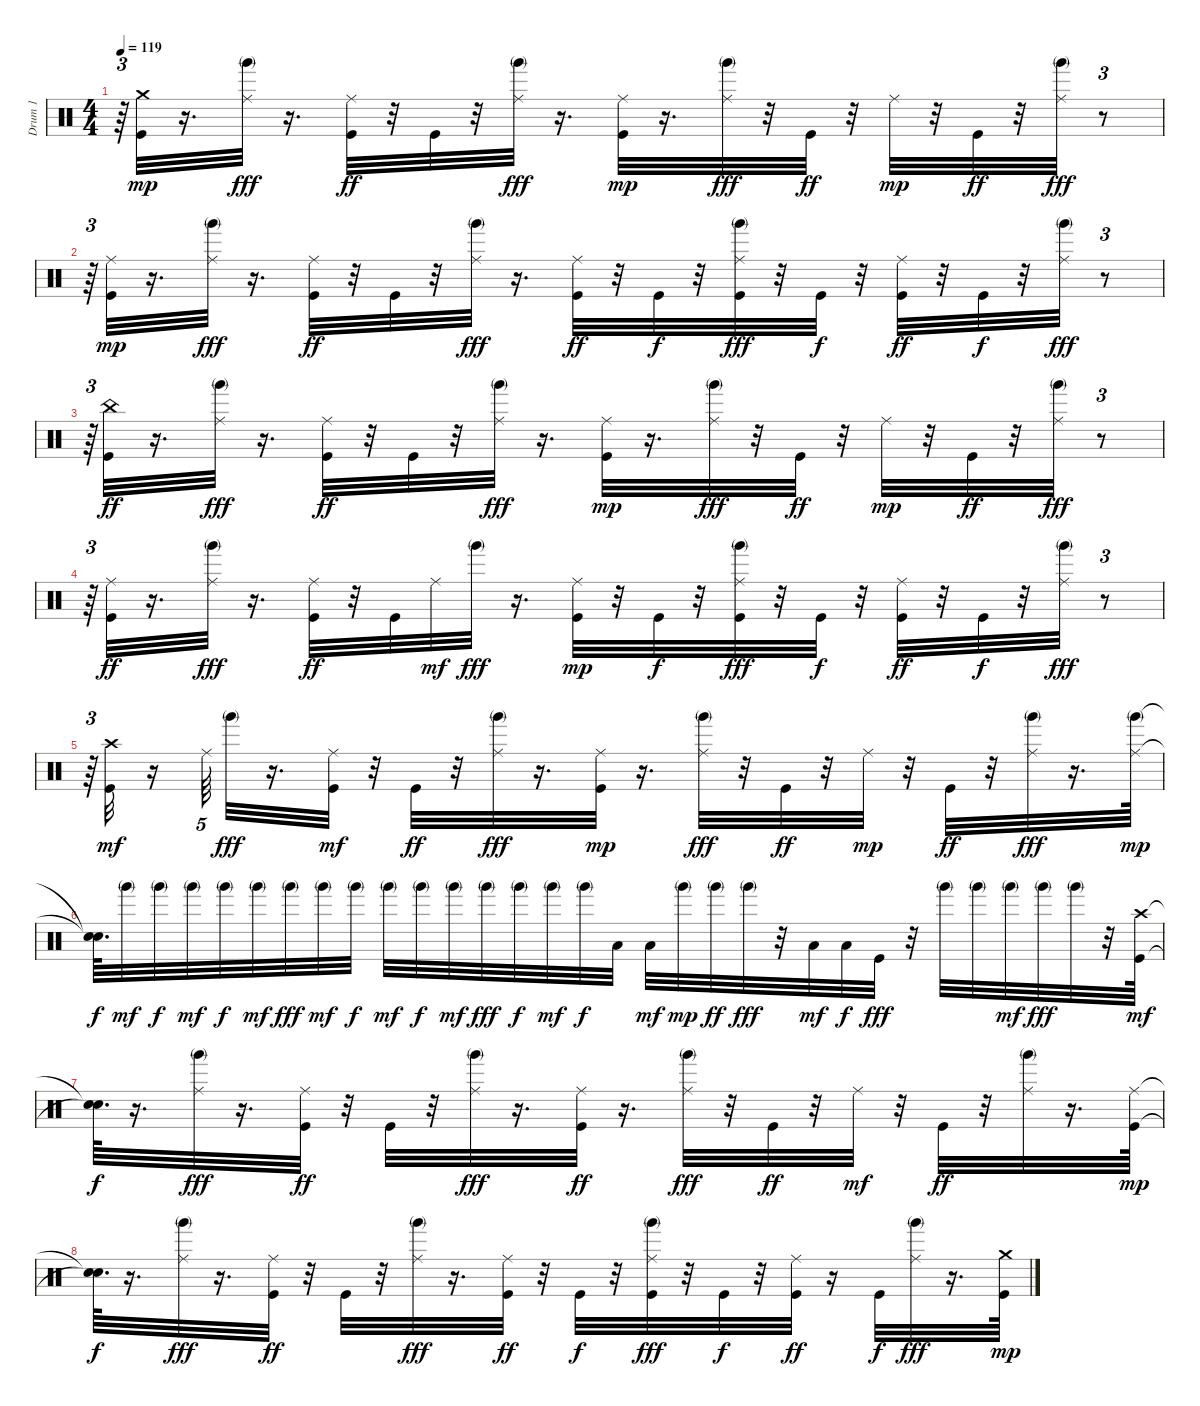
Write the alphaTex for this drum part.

\track ("Drum 1                          " "Drum 1    ") {instrument percussion}
\staff {score}
\articulation defaults
\ts (4 4)
\tempo 119
\clef neutral
\ks c
r.64{tu (3 2) dy fff} ("Kick (hit)" "Crash medium (hit)").32{dy mp} r.16{d} ("Ride (middle)" "Hand (mute) 2").32{dy fff} r.16{d} ("Ride (middle)" "Kick (hit)").32{dy ff} r.32 "Kick (hit)".32 r.32 ("Ride (middle)" "Hand (mute) 2").32{dy fff} r.16{d} ("Kick (hit)" "Ride (middle)").32{dy mp} r.16{d} ("Ride (middle)" "Hand (mute) 2").32{dy fff} r.32 "Kick (hit)".32{dy ff} r.32 "Ride (middle)".32{dy mp} r.32 "Kick (hit)".32{dy ff} r.32 ("Ride (middle)" "Hand (mute) 2").32{dy fff} r.8{tu (3 2)} |
r.64{tu (3 2)} ("Kick (hit)" "Ride (middle)").32{dy mp} r.16{d} ("Ride (middle)" "Hand (mute) 2").32{dy fff} r.16{d} ("Ride (middle)" "Kick (hit)").32{dy ff} r.32 "Kick (hit)".32 r.32 ("Ride (middle)" "Hand (mute) 2").32{dy fff} r.16{d} ("Ride (middle)" "Kick (hit)").32{dy ff} r.32 "Kick (hit)".32{dy f} r.32 ("Kick (hit)" "Ride (middle)" "Hand (mute) 2").32{dy fff} r.32 "Kick (hit)".32{dy f} r.32 ("Ride (middle)" "Kick (hit)").32{dy ff} r.32 "Kick (hit)".32{dy f} r.32 ("Ride (middle)" "Hand (mute) 2").32{dy fff} r.8{tu (3 2)} |
r.64{tu (3 2)} ("Kick (hit)" "China (hit)").32{dy ff} r.16{d} ("Ride (middle)" "Hand (mute) 2").32{dy fff} r.16{d} ("Ride (middle)" "Kick (hit)").32{dy ff} r.32 "Kick (hit)".32 r.32 ("Ride (middle)" "Hand (mute) 2").32{dy fff} r.16{d} ("Kick (hit)" "Ride (middle)").32{dy mp} r.16{d} ("Ride (middle)" "Hand (mute) 2").32{dy fff} r.32 "Kick (hit)".32{dy ff} r.32 "Ride (middle)".32{dy mp} r.32 "Kick (hit)".32{dy ff} r.32 ("Ride (middle)" "Hand (mute) 2").32{dy fff} r.8{tu (3 2)} |
r.64{tu (3 2)} ("Ride (middle)" "Kick (hit)").32{dy ff} r.16{d} ("Ride (middle)" "Hand (mute) 2").32{dy fff} r.16{d} ("Ride (middle)" "Kick (hit)").32{dy ff} r.32 "Kick (hit)".32 "Ride (middle)".32{dy mf} "Hand (mute) 2".32{dy fff} r.16{d} ("Kick (hit)" "Ride (middle)").32{dy mp} r.32 "Kick (hit)".32{dy f} r.32 ("Kick (hit)" "Ride (middle)" "Hand (mute) 2").32{dy fff} r.32 "Kick (hit)".32{dy f} r.32 ("Ride (middle)" "Kick (hit)").32{dy ff} r.32 "Kick (hit)".32{dy f} r.32 ("Ride (middle)" "Hand (mute) 2").32{dy fff} r.8{tu (3 2)} |
r.64{tu (3 2)} ("Kick (hit)" "Crash high (hit)").32{dy mf} r.16 "Ride (middle)".64{tu (5 4)} "Hand (mute) 2".32{dy fff} r.16{d} ("Kick (hit)" "Ride (middle)").32{dy mf} r.32 "Kick (hit)".32{dy ff} r.32 ("Ride (middle)" "Hand (mute) 2").32{dy fff} r.16{d} ("Kick (hit)" "Ride (middle)").32{dy mp} r.16{d} ("Ride (middle)" "Hand (mute) 2").32{dy fff} r.32 "Kick (hit)".32{dy ff} r.32 "Ride (middle)".32{dy mp} r.32 "Kick (hit)".32{dy ff} r.32 ("Ride (middle)" "Hand (mute) 2").32{dy fff} r.16{d} ("Hand (mute) 2" "Ride (middle)").64{dy mp} |
("Snare (hit)"{t} "Snare (hit)"{t}).64{d dy f} "Hand (mute) 2".32{dy mf} "Hand (mute) 2".32{dy f} "Hand (mute) 2".32{dy mf} "Hand (mute) 2".32{dy f} "Hand (mute) 2".32{dy mf} "Hand (mute) 2".32{dy fff} "Hand (mute) 2".32{dy mf} "Hand (mute) 2".32{dy f} "Hand (mute) 2".32{dy mf} "Hand (mute) 2".32{dy f} "Hand (mute) 2".32{dy mf} "Hand (mute) 2".32{dy fff} "Hand (mute) 2".32{dy f} "Hand (mute) 2".32{dy mf} "Hand (mute) 2".32{dy f} "Low Floor Tom (hit)".32 "Low Floor Tom (hit)".32{dy mf} "Hand (mute) 2".32{dy mp} "Hand (mute) 2".32{dy ff} "Hand (mute) 2".32{dy fff} r.32 "Low Tom (hit)".32{dy mf} "Low Tom (hit)".32{dy f} "Kick (hit)".32{dy fff} r.32 "Hand (mute) 2".32 "Hand (mute) 2".32 "Hand (mute) 2".32{dy mf} "Hand (mute) 2".32{dy fff} "Hand (mute) 2".32 r.32 ("Kick (hit)" "Crash high (hit)").64{dy mf} |
("Snare (hit)"{t} "Snare (hit)"{t}).64{d dy f} r.16{d} ("Ride (middle)" "Hand (mute) 2").32{dy fff} r.16{d} ("Ride (middle)" "Kick (hit)").32{dy ff} r.32 "Kick (hit)".32 r.32 ("Ride (middle)" "Hand (mute) 2").32{dy fff} r.16{d} ("Ride (middle)" "Kick (hit)").32{dy ff} r.16{d} ("Ride (middle)" "Hand (mute) 2").32{dy fff} r.32 "Kick (hit)".32{dy ff} r.32 "Ride (middle)".32{dy mf} r.32 "Kick (hit)".32{dy ff} r.32 ("Ride (middle)" "Hand (mute) 2").32 r.16{d} ("Kick (hit)" "Ride (middle)").64{dy mp} |
("Snare (hit)"{t} "Snare (hit)"{t}).64{d dy f} r.16{d} ("Ride (middle)" "Hand (mute) 2").32{dy fff} r.16{d} ("Ride (middle)" "Kick (hit)").32{dy ff} r.32 "Kick (hit)".32 r.32 ("Ride (middle)" "Hand (mute) 2").32{dy fff} r.16{d} ("Ride (middle)" "Kick (hit)").32{dy ff} r.32 "Kick (hit)".32{dy f} r.32 ("Ride (middle)" "Kick (hit)" "Hand (mute) 2").32{dy fff} r.32 "Kick (hit)".32{dy f} r.32 ("Ride (middle)" "Kick (hit)").32{dy ff} r.16 "Kick (hit)".32{dy f} ("Ride (middle)" "Hand (mute) 2").32{dy fff} r.16{d} ("Kick (hit)" "Crash medium (hit)").64{dy mp}
